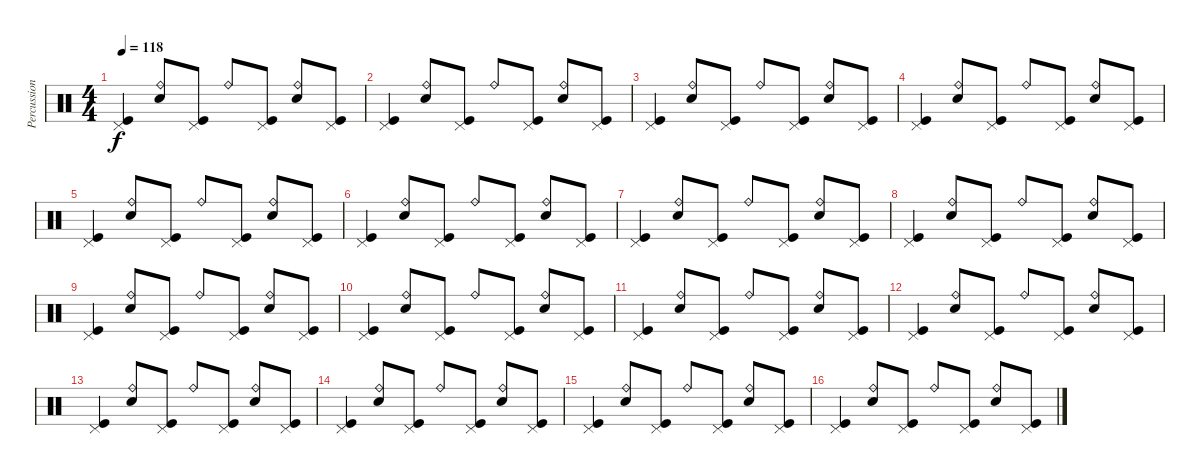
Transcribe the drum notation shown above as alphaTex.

\track ("Percussions" "Percussion") {instrument percussion}
\staff {score}
\articulation defaults
\ts (4 4)
\tempo 118
\clef neutral
\ks c
("Pedal Hi-Hat (hit)" "Kick (hit)").4{dy f} ("Ride (bell)" "Snare (hit) 2").8 ("Pedal Hi-Hat (hit)" "Kick (hit)").8 "Ride (bell)".8 ("Pedal Hi-Hat (hit)" "Kick (hit)").8 ("Ride (bell)" "Snare (hit) 2").8 ("Pedal Hi-Hat (hit)" "Kick (hit)").8 |
("Pedal Hi-Hat (hit)" "Kick (hit)").4 ("Ride (bell)" "Snare (hit) 2").8 ("Pedal Hi-Hat (hit)" "Kick (hit)").8 "Ride (bell)".8 ("Pedal Hi-Hat (hit)" "Kick (hit)").8 ("Ride (bell)" "Snare (hit) 2").8 ("Pedal Hi-Hat (hit)" "Kick (hit)").8 |
("Pedal Hi-Hat (hit)" "Kick (hit)").4 ("Ride (bell)" "Snare (hit) 2").8 ("Pedal Hi-Hat (hit)" "Kick (hit)").8 "Ride (bell)".8 ("Pedal Hi-Hat (hit)" "Kick (hit)").8 ("Ride (bell)" "Snare (hit) 2").8 ("Pedal Hi-Hat (hit)" "Kick (hit)").8 |
("Pedal Hi-Hat (hit)" "Kick (hit)").4 ("Ride (bell)" "Snare (hit) 2").8 ("Pedal Hi-Hat (hit)" "Kick (hit)").8 "Ride (bell)".8 ("Pedal Hi-Hat (hit)" "Kick (hit)").8 ("Ride (bell)" "Snare (hit) 2").8 ("Pedal Hi-Hat (hit)" "Kick (hit)").8 |
("Pedal Hi-Hat (hit)" "Kick (hit)").4 ("Ride (bell)" "Snare (hit) 2").8 ("Pedal Hi-Hat (hit)" "Kick (hit)").8 "Ride (bell)".8 ("Pedal Hi-Hat (hit)" "Kick (hit)").8 ("Ride (bell)" "Snare (hit) 2").8 ("Pedal Hi-Hat (hit)" "Kick (hit)").8 |
("Pedal Hi-Hat (hit)" "Kick (hit)").4 ("Ride (bell)" "Snare (hit) 2").8 ("Pedal Hi-Hat (hit)" "Kick (hit)").8 "Ride (bell)".8 ("Pedal Hi-Hat (hit)" "Kick (hit)").8 ("Ride (bell)" "Snare (hit) 2").8 ("Pedal Hi-Hat (hit)" "Kick (hit)").8 |
("Pedal Hi-Hat (hit)" "Kick (hit)").4 ("Ride (bell)" "Snare (hit) 2").8 ("Pedal Hi-Hat (hit)" "Kick (hit)").8 "Ride (bell)".8 ("Pedal Hi-Hat (hit)" "Kick (hit)").8 ("Ride (bell)" "Snare (hit) 2").8 ("Pedal Hi-Hat (hit)" "Kick (hit)").8 |
("Pedal Hi-Hat (hit)" "Kick (hit)").4 ("Ride (bell)" "Snare (hit) 2").8 ("Pedal Hi-Hat (hit)" "Kick (hit)").8 "Ride (bell)".8 ("Pedal Hi-Hat (hit)" "Kick (hit)").8 ("Ride (bell)" "Snare (hit) 2").8 ("Pedal Hi-Hat (hit)" "Kick (hit)").8 |
("Pedal Hi-Hat (hit)" "Kick (hit)").4 ("Ride (bell)" "Snare (hit) 2").8 ("Pedal Hi-Hat (hit)" "Kick (hit)").8 "Ride (bell)".8 ("Pedal Hi-Hat (hit)" "Kick (hit)").8 ("Ride (bell)" "Snare (hit) 2").8 ("Pedal Hi-Hat (hit)" "Kick (hit)").8 |
("Pedal Hi-Hat (hit)" "Kick (hit)").4 ("Ride (bell)" "Snare (hit) 2").8 ("Pedal Hi-Hat (hit)" "Kick (hit)").8 "Ride (bell)".8 ("Pedal Hi-Hat (hit)" "Kick (hit)").8 ("Ride (bell)" "Snare (hit) 2").8 ("Pedal Hi-Hat (hit)" "Kick (hit)").8 |
("Pedal Hi-Hat (hit)" "Kick (hit)").4 ("Ride (bell)" "Snare (hit) 2").8 ("Pedal Hi-Hat (hit)" "Kick (hit)").8 "Ride (bell)".8 ("Pedal Hi-Hat (hit)" "Kick (hit)").8 ("Ride (bell)" "Snare (hit) 2").8 ("Pedal Hi-Hat (hit)" "Kick (hit)").8 |
("Pedal Hi-Hat (hit)" "Kick (hit)").4 ("Ride (bell)" "Snare (hit) 2").8 ("Pedal Hi-Hat (hit)" "Kick (hit)").8 "Ride (bell)".8 ("Pedal Hi-Hat (hit)" "Kick (hit)").8 ("Ride (bell)" "Snare (hit) 2").8 ("Pedal Hi-Hat (hit)" "Kick (hit)").8 |
("Pedal Hi-Hat (hit)" "Kick (hit)").4 ("Ride (bell)" "Snare (hit) 2").8 ("Pedal Hi-Hat (hit)" "Kick (hit)").8 "Ride (bell)".8 ("Pedal Hi-Hat (hit)" "Kick (hit)").8 ("Ride (bell)" "Snare (hit) 2").8 ("Pedal Hi-Hat (hit)" "Kick (hit)").8 |
("Pedal Hi-Hat (hit)" "Kick (hit)").4 ("Ride (bell)" "Snare (hit) 2").8 ("Pedal Hi-Hat (hit)" "Kick (hit)").8 "Ride (bell)".8 ("Pedal Hi-Hat (hit)" "Kick (hit)").8 ("Ride (bell)" "Snare (hit) 2").8 ("Pedal Hi-Hat (hit)" "Kick (hit)").8 |
("Pedal Hi-Hat (hit)" "Kick (hit)").4 ("Ride (bell)" "Snare (hit) 2").8 ("Pedal Hi-Hat (hit)" "Kick (hit)").8 "Ride (bell)".8 ("Pedal Hi-Hat (hit)" "Kick (hit)").8 ("Ride (bell)" "Snare (hit) 2").8 ("Pedal Hi-Hat (hit)" "Kick (hit)").8 |
("Pedal Hi-Hat (hit)" "Kick (hit)").4 ("Ride (bell)" "Snare (hit) 2").8 ("Pedal Hi-Hat (hit)" "Kick (hit)").8 "Ride (bell)".8 ("Pedal Hi-Hat (hit)" "Kick (hit)").8 ("Ride (bell)" "Snare (hit) 2").8 ("Pedal Hi-Hat (hit)" "Kick (hit)").8
